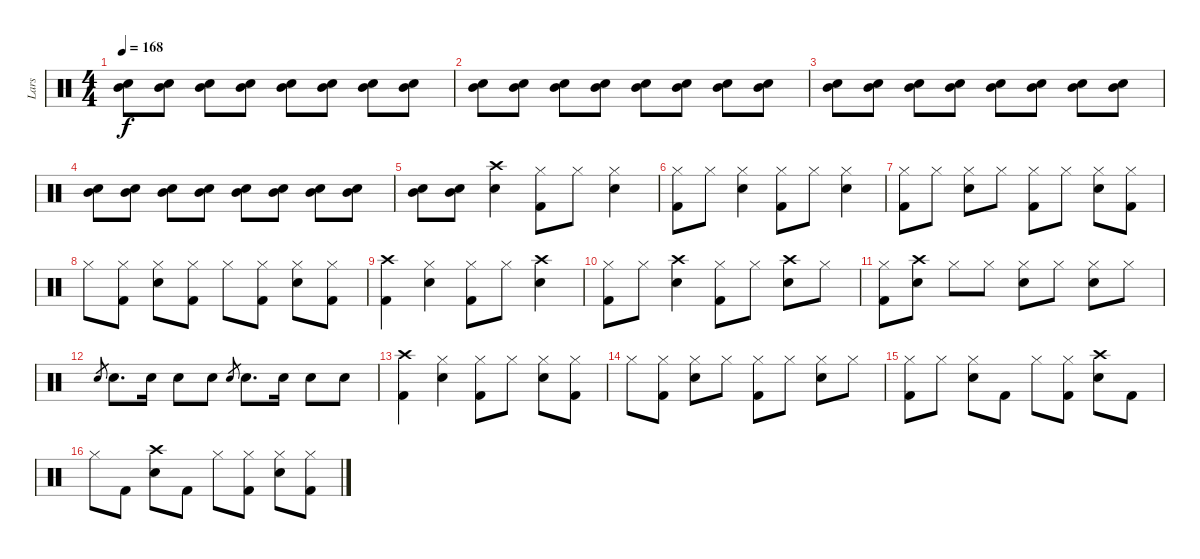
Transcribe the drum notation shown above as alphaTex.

\track ("Lars" "Lars") {instrument percussion}
\staff {score}
\articulation defaults
\ts (4 4)
\tempo 168
\clef neutral
\ks c
("Snare (hit) 2" "Mid Tom (hit)").8{dy f} ("Snare (hit) 2" "Mid Tom (hit)").8 ("Snare (hit) 2" "Mid Tom (hit)").8 ("Snare (hit) 2" "Mid Tom (hit)").8 ("Snare (hit) 2" "Mid Tom (hit)").8 ("Snare (hit) 2" "Mid Tom (hit)").8 ("Snare (hit) 2" "Mid Tom (hit)").8 ("Snare (hit) 2" "Mid Tom (hit)").8 |
("Snare (hit) 2" "Mid Tom (hit)").8 ("Snare (hit) 2" "Mid Tom (hit)").8 ("Snare (hit) 2" "Mid Tom (hit)").8 ("Snare (hit) 2" "Mid Tom (hit)").8 ("Snare (hit) 2" "Mid Tom (hit)").8 ("Snare (hit) 2" "Mid Tom (hit)").8 ("Snare (hit) 2" "Mid Tom (hit)").8 ("Snare (hit) 2" "Mid Tom (hit)").8 |
("Snare (hit) 2" "Mid Tom (hit)").8 ("Snare (hit) 2" "Mid Tom (hit)").8 ("Snare (hit) 2" "Mid Tom (hit)").8 ("Snare (hit) 2" "Mid Tom (hit)").8 ("Snare (hit) 2" "Mid Tom (hit)").8 ("Snare (hit) 2" "Mid Tom (hit)").8 ("Snare (hit) 2" "Mid Tom (hit)").8 ("Snare (hit) 2" "Mid Tom (hit)").8 |
("Snare (hit) 2" "Mid Tom (hit)").8 ("Snare (hit) 2" "Mid Tom (hit)").8 ("Snare (hit) 2" "Mid Tom (hit)").8 ("Snare (hit) 2" "Mid Tom (hit)").8 ("Snare (hit) 2" "Mid Tom (hit)").8 ("Snare (hit) 2" "Mid Tom (hit)").8 ("Snare (hit) 2" "Mid Tom (hit)").8 ("Snare (hit) 2" "Mid Tom (hit)").8 |
("Snare (hit) 2" "Mid Tom (hit)").8 ("Snare (hit) 2" "Mid Tom (hit)").8 ("Crash high (hit)" "Snare (hit) 2").4 ("Hi-Hat (closed)" "Kick (hit) 2").8 "Hi-Hat (closed)".8 ("Hi-Hat (closed)" "Snare (hit) 2").4 |
("Hi-Hat (closed)" "Kick (hit) 2").8 "Hi-Hat (closed)".8 ("Hi-Hat (closed)" "Snare (hit) 2").4 ("Hi-Hat (closed)" "Kick (hit) 2").8 "Hi-Hat (closed)".8 ("Hi-Hat (closed)" "Snare (hit) 2").4 |
("Hi-Hat (closed)" "Kick (hit) 2").8 "Hi-Hat (closed)".8 ("Hi-Hat (closed)" "Snare (hit) 2").8 "Hi-Hat (closed)".8 ("Hi-Hat (closed)" "Kick (hit) 2").8 "Hi-Hat (closed)".8 ("Hi-Hat (closed)" "Snare (hit) 2").8 ("Hi-Hat (closed)" "Kick (hit) 2").8 |
"Hi-Hat (closed)".8 ("Hi-Hat (closed)" "Kick (hit) 2").8 ("Hi-Hat (closed)" "Snare (hit) 2").8 ("Hi-Hat (closed)" "Kick (hit) 2").8 "Hi-Hat (closed)".8 ("Hi-Hat (closed)" "Kick (hit) 2").8 ("Hi-Hat (closed)" "Snare (hit) 2").8 ("Hi-Hat (closed)" "Kick (hit) 2").8 |
("Crash high (hit)" "Kick (hit) 2").4 ("Hi-Hat (closed)" "Snare (hit) 2").4 ("Hi-Hat (closed)" "Kick (hit) 2").8 "Hi-Hat (closed)".8 ("Crash high (hit)" "Snare (hit) 2").4 |
("Hi-Hat (closed)" "Kick (hit) 2").8 "Hi-Hat (closed)".8 ("Crash high (hit)" "Snare (hit) 2").4 ("Hi-Hat (closed)" "Kick (hit) 2").8 "Hi-Hat (closed)".8 ("Crash high (hit)" "Snare (hit) 2").8 "Hi-Hat (closed)".8 |
("Hi-Hat (closed)" "Kick (hit) 2").8 ("Crash high (hit)" "Snare (hit) 2").8 "Hi-Hat (closed)".8 "Hi-Hat (closed)".8 ("Hi-Hat (closed)" "Snare (hit) 2").8 "Hi-Hat (closed)".8 ("Hi-Hat (closed)" "Snare (hit) 2").8 "Hi-Hat (closed)".8 |
"Snare (hit) 2".8{gr} "Snare (hit) 2".8{d} "Snare (hit) 2".16 "Snare (hit) 2".8 "Snare (hit) 2".8 "Snare (hit) 2".8{gr} "Snare (hit) 2".8{d} "Snare (hit) 2".16 "Snare (hit) 2".8 "Snare (hit) 2".8 |
("Crash high (hit)" "Kick (hit) 2").4 ("Hi-Hat (closed)" "Snare (hit) 2").4 ("Hi-Hat (closed)" "Kick (hit) 2").8 "Hi-Hat (closed)".8 ("Hi-Hat (closed)" "Snare (hit) 2").8 ("Hi-Hat (closed)" "Kick (hit) 2").8 |
"Hi-Hat (closed)".8 ("Hi-Hat (closed)" "Kick (hit) 2").8 ("Hi-Hat (closed)" "Snare (hit) 2").8 "Hi-Hat (closed)".8 ("Hi-Hat (closed)" "Kick (hit) 2").8 "Hi-Hat (closed)".8 ("Hi-Hat (closed)" "Snare (hit) 2").8 "Hi-Hat (closed)".8 |
("Hi-Hat (closed)" "Kick (hit) 2").8 "Hi-Hat (closed)".8 ("Hi-Hat (closed)" "Snare (hit) 2").8 "Kick (hit) 2".8 "Hi-Hat (closed)".8 ("Hi-Hat (closed)" "Kick (hit) 2").8 ("Crash high (hit)" "Snare (hit) 2").8 "Kick (hit) 2".8 |
"Hi-Hat (closed)".8 "Kick (hit) 2".8 ("Crash high (hit)" "Snare (hit) 2").8 "Kick (hit) 2".8 "Hi-Hat (closed)".8 ("Hi-Hat (closed)" "Kick (hit) 2").8 ("Hi-Hat (closed)" "Snare (hit) 2").8 ("Hi-Hat (closed)" "Kick (hit) 2").8
